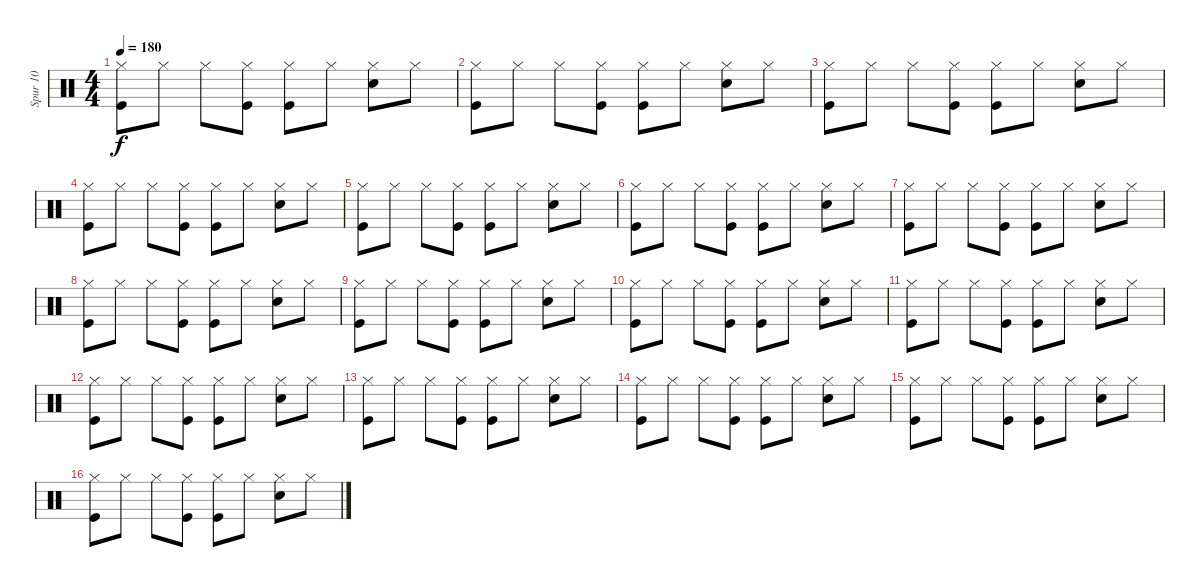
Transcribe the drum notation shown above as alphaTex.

\track ("Spur 10" "Spur 10") {instrument percussion}
\staff {score}
\articulation defaults
\ts (4 4)
\tempo 180
\clef neutral
\ks c
("Hi-Hat (closed)" "Kick (hit)").8{dy f} "Hi-Hat (closed)".8 "Hi-Hat (closed)".8 ("Hi-Hat (closed)" "Kick (hit)").8 ("Hi-Hat (closed)" "Kick (hit)").8 "Hi-Hat (closed)".8 ("Hi-Hat (closed)" "Electric Snare (hit)").8 "Hi-Hat (closed)".8 |
("Hi-Hat (closed)" "Kick (hit)").8 "Hi-Hat (closed)".8 "Hi-Hat (closed)".8 ("Hi-Hat (closed)" "Kick (hit)").8 ("Hi-Hat (closed)" "Kick (hit)").8 "Hi-Hat (closed)".8 ("Hi-Hat (closed)" "Electric Snare (hit)").8 "Hi-Hat (closed)".8 |
("Hi-Hat (closed)" "Kick (hit)").8 "Hi-Hat (closed)".8 "Hi-Hat (closed)".8 ("Hi-Hat (closed)" "Kick (hit)").8 ("Hi-Hat (closed)" "Kick (hit)").8 "Hi-Hat (closed)".8 ("Hi-Hat (closed)" "Electric Snare (hit)").8 "Hi-Hat (closed)".8 |
("Hi-Hat (closed)" "Kick (hit)").8 "Hi-Hat (closed)".8 "Hi-Hat (closed)".8 ("Hi-Hat (closed)" "Kick (hit)").8 ("Hi-Hat (closed)" "Kick (hit)").8 "Hi-Hat (closed)".8 ("Hi-Hat (closed)" "Electric Snare (hit)").8 "Hi-Hat (closed)".8 |
("Hi-Hat (closed)" "Kick (hit)").8 "Hi-Hat (closed)".8 "Hi-Hat (closed)".8 ("Hi-Hat (closed)" "Kick (hit)").8 ("Hi-Hat (closed)" "Kick (hit)").8 "Hi-Hat (closed)".8 ("Hi-Hat (closed)" "Electric Snare (hit)").8 "Hi-Hat (closed)".8 |
("Hi-Hat (closed)" "Kick (hit)").8 "Hi-Hat (closed)".8 "Hi-Hat (closed)".8 ("Hi-Hat (closed)" "Kick (hit)").8 ("Hi-Hat (closed)" "Kick (hit)").8 "Hi-Hat (closed)".8 ("Hi-Hat (closed)" "Electric Snare (hit)").8 "Hi-Hat (closed)".8 |
("Hi-Hat (closed)" "Kick (hit)").8 "Hi-Hat (closed)".8 "Hi-Hat (closed)".8 ("Hi-Hat (closed)" "Kick (hit)").8 ("Hi-Hat (closed)" "Kick (hit)").8 "Hi-Hat (closed)".8 ("Hi-Hat (closed)" "Electric Snare (hit)").8 "Hi-Hat (closed)".8 |
("Hi-Hat (closed)" "Kick (hit)").8 "Hi-Hat (closed)".8 "Hi-Hat (closed)".8 ("Hi-Hat (closed)" "Kick (hit)").8 ("Hi-Hat (closed)" "Kick (hit)").8 "Hi-Hat (closed)".8 ("Hi-Hat (closed)" "Electric Snare (hit)").8 "Hi-Hat (closed)".8 |
("Hi-Hat (closed)" "Kick (hit)").8 "Hi-Hat (closed)".8 "Hi-Hat (closed)".8 ("Hi-Hat (closed)" "Kick (hit)").8 ("Hi-Hat (closed)" "Kick (hit)").8 "Hi-Hat (closed)".8 ("Hi-Hat (closed)" "Electric Snare (hit)").8 "Hi-Hat (closed)".8 |
("Hi-Hat (closed)" "Kick (hit)").8 "Hi-Hat (closed)".8 "Hi-Hat (closed)".8 ("Hi-Hat (closed)" "Kick (hit)").8 ("Hi-Hat (closed)" "Kick (hit)").8 "Hi-Hat (closed)".8 ("Hi-Hat (closed)" "Electric Snare (hit)").8 "Hi-Hat (closed)".8 |
("Hi-Hat (closed)" "Kick (hit)").8 "Hi-Hat (closed)".8 "Hi-Hat (closed)".8 ("Hi-Hat (closed)" "Kick (hit)").8 ("Hi-Hat (closed)" "Kick (hit)").8 "Hi-Hat (closed)".8 ("Hi-Hat (closed)" "Electric Snare (hit)").8 "Hi-Hat (closed)".8 |
("Hi-Hat (closed)" "Kick (hit)").8 "Hi-Hat (closed)".8 "Hi-Hat (closed)".8 ("Hi-Hat (closed)" "Kick (hit)").8 ("Hi-Hat (closed)" "Kick (hit)").8 "Hi-Hat (closed)".8 ("Hi-Hat (closed)" "Electric Snare (hit)").8 "Hi-Hat (closed)".8 |
("Hi-Hat (closed)" "Kick (hit)").8 "Hi-Hat (closed)".8 "Hi-Hat (closed)".8 ("Hi-Hat (closed)" "Kick (hit)").8 ("Hi-Hat (closed)" "Kick (hit)").8 "Hi-Hat (closed)".8 ("Hi-Hat (closed)" "Electric Snare (hit)").8 "Hi-Hat (closed)".8 |
("Hi-Hat (closed)" "Kick (hit)").8 "Hi-Hat (closed)".8 "Hi-Hat (closed)".8 ("Hi-Hat (closed)" "Kick (hit)").8 ("Hi-Hat (closed)" "Kick (hit)").8 "Hi-Hat (closed)".8 ("Hi-Hat (closed)" "Electric Snare (hit)").8 "Hi-Hat (closed)".8 |
("Hi-Hat (closed)" "Kick (hit)").8 "Hi-Hat (closed)".8 "Hi-Hat (closed)".8 ("Hi-Hat (closed)" "Kick (hit)").8 ("Hi-Hat (closed)" "Kick (hit)").8 "Hi-Hat (closed)".8 ("Hi-Hat (closed)" "Electric Snare (hit)").8 "Hi-Hat (closed)".8 |
("Hi-Hat (closed)" "Kick (hit)").8 "Hi-Hat (closed)".8 "Hi-Hat (closed)".8 ("Hi-Hat (closed)" "Kick (hit)").8 ("Hi-Hat (closed)" "Kick (hit)").8 "Hi-Hat (closed)".8 ("Hi-Hat (closed)" "Electric Snare (hit)").8 "Hi-Hat (closed)".8
